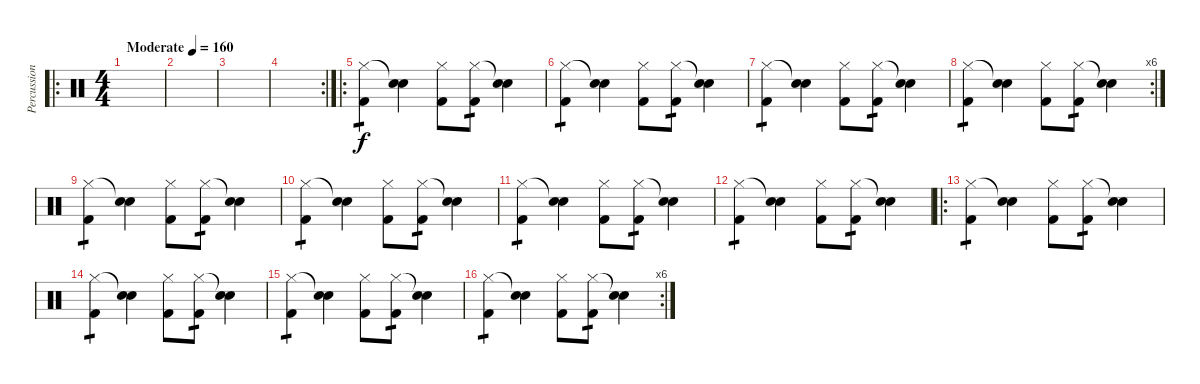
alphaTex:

\track ("Percussion" "Percussion") {instrument percussion}
\staff {score}
\articulation defaults
\ro
\ts (4 4)
\tempo (160 "Moderate")
\clef neutral
\ks c
|
|
|
\rc 2
|
\ro
("Kick (hit) 2" "Hi-Hat (closed)").4{tp 1} ("Snare (hit) 2" "Snare (hit)"{t}).4 ("Kick (hit) 2" "Hi-Hat (closed)").8 ("Kick (hit) 2" "Hi-Hat (closed)").8{tp 1} ("Snare (hit) 2" "Snare (hit)"{t}).4 |
("Kick (hit) 2" "Hi-Hat (closed)").4{tp 1} ("Snare (hit) 2" "Snare (hit)"{t}).4 ("Kick (hit) 2" "Hi-Hat (closed)").8 ("Kick (hit) 2" "Hi-Hat (closed)").8{tp 1} ("Snare (hit) 2" "Snare (hit)"{t}).4 |
("Kick (hit) 2" "Hi-Hat (closed)").4{tp 1} ("Snare (hit) 2" "Snare (hit)"{t}).4 ("Kick (hit) 2" "Hi-Hat (closed)").8 ("Kick (hit) 2" "Hi-Hat (closed)").8{tp 1} ("Snare (hit) 2" "Snare (hit)"{t}).4 |
\rc 6
("Kick (hit) 2" "Hi-Hat (closed)").4{tp 1} ("Snare (hit) 2" "Snare (hit)"{t}).4 ("Kick (hit) 2" "Hi-Hat (closed)").8 ("Kick (hit) 2" "Hi-Hat (closed)").8{tp 1} ("Snare (hit) 2" "Snare (hit)"{t}).4 |
("Kick (hit) 2" "Hi-Hat (closed)").4{tp 1} ("Snare (hit) 2" "Snare (hit)"{t}).4 ("Kick (hit) 2" "Hi-Hat (closed)").8 ("Kick (hit) 2" "Hi-Hat (closed)").8{tp 1} ("Snare (hit) 2" "Snare (hit)"{t}).4 |
("Kick (hit) 2" "Hi-Hat (closed)").4{tp 1} ("Snare (hit) 2" "Snare (hit)"{t}).4 ("Kick (hit) 2" "Hi-Hat (closed)").8 ("Kick (hit) 2" "Hi-Hat (closed)").8{tp 1} ("Snare (hit) 2" "Snare (hit)"{t}).4 |
("Kick (hit) 2" "Hi-Hat (closed)").4{tp 1} ("Snare (hit) 2" "Snare (hit)"{t}).4 ("Kick (hit) 2" "Hi-Hat (closed)").8 ("Kick (hit) 2" "Hi-Hat (closed)").8{tp 1} ("Snare (hit) 2" "Snare (hit)"{t}).4 |
("Kick (hit) 2" "Hi-Hat (closed)").4{tp 1} ("Snare (hit) 2" "Snare (hit)"{t}).4 ("Kick (hit) 2" "Hi-Hat (closed)").8 ("Kick (hit) 2" "Hi-Hat (closed)").8{tp 1} ("Snare (hit) 2" "Snare (hit)"{t}).4 |
\ro
("Kick (hit) 2" "Hi-Hat (closed)").4{tp 1} ("Snare (hit) 2" "Snare (hit)"{t}).4 ("Kick (hit) 2" "Hi-Hat (closed)").8 ("Kick (hit) 2" "Hi-Hat (closed)").8{tp 1} ("Snare (hit) 2" "Snare (hit)"{t}).4 |
("Kick (hit) 2" "Hi-Hat (closed)").4{tp 1} ("Snare (hit) 2" "Snare (hit)"{t}).4 ("Kick (hit) 2" "Hi-Hat (closed)").8 ("Kick (hit) 2" "Hi-Hat (closed)").8{tp 1} ("Snare (hit) 2" "Snare (hit)"{t}).4 |
("Kick (hit) 2" "Hi-Hat (closed)").4{tp 1} ("Snare (hit) 2" "Snare (hit)"{t}).4 ("Kick (hit) 2" "Hi-Hat (closed)").8 ("Kick (hit) 2" "Hi-Hat (closed)").8{tp 1} ("Snare (hit) 2" "Snare (hit)"{t}).4 |
\rc 6
("Kick (hit) 2" "Hi-Hat (closed)").4{tp 1} ("Snare (hit) 2" "Snare (hit)"{t}).4 ("Kick (hit) 2" "Hi-Hat (closed)").8 ("Kick (hit) 2" "Hi-Hat (closed)").8{tp 1} ("Snare (hit) 2" "Snare (hit)"{t}).4
